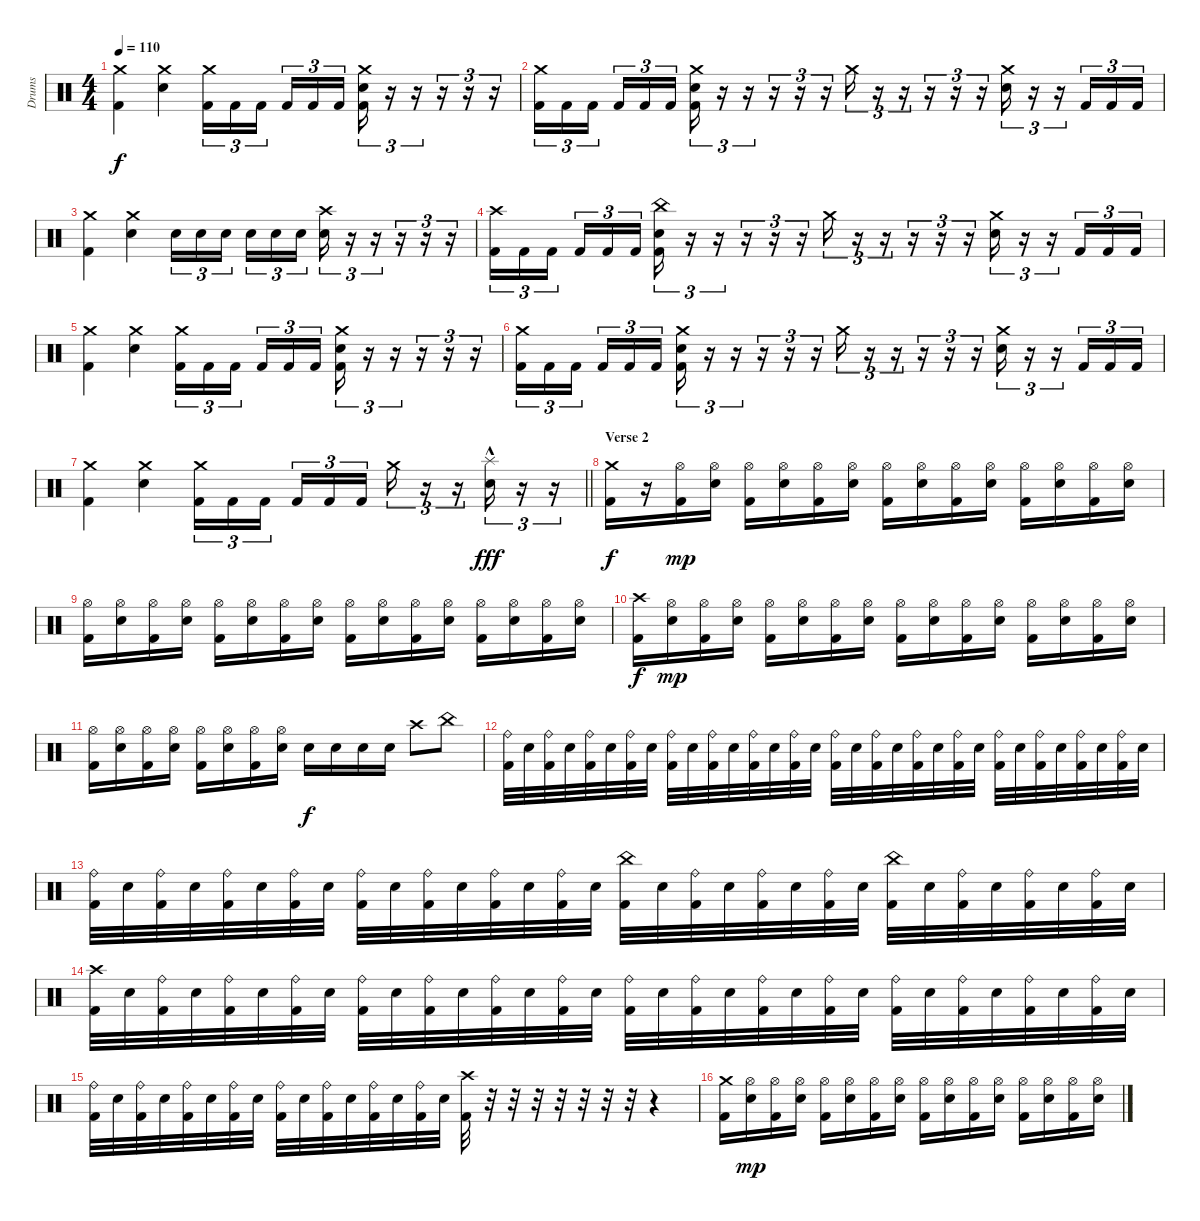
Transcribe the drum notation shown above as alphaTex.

\track ("Drums" "Drums") {instrument percussion}
\staff {score}
\articulation defaults
\ts (4 4)
\tempo 110
\clef neutral
\ks c
("Crash medium (hit)" "Kick (hit) 2").4{dy f} ("Crash medium (hit)" "Electric Snare (hit)").4 ("Crash medium (hit)" "Kick (hit) 2").16{tu (3 2)} "Kick (hit) 2".16{tu (3 2)} "Kick (hit) 2".16{tu (3 2) beam splitsecondary} "Kick (hit) 2".16{tu (3 2)} "Kick (hit) 2".16{tu (3 2)} "Kick (hit) 2".16{tu (3 2)} ("Crash medium (hit)" "Electric Snare (hit)" "Kick (hit) 2").16{tu (3 2)} r.16{tu (3 2)} r.16{tu (3 2)} r.16{tu (3 2)} r.16{tu (3 2)} r.16{tu (3 2)} |
("Crash medium (hit)" "Kick (hit) 2").16{tu (3 2)} "Kick (hit) 2".16{tu (3 2)} "Kick (hit) 2".16{tu (3 2) beam splitsecondary} "Kick (hit) 2".16{tu (3 2)} "Kick (hit) 2".16{tu (3 2)} "Kick (hit) 2".16{tu (3 2)} ("Crash medium (hit)" "Electric Snare (hit)" "Kick (hit) 2").16{tu (3 2)} r.16{tu (3 2)} r.16{tu (3 2)} r.16{tu (3 2)} r.16{tu (3 2)} r.16{tu (3 2)} "Crash medium (hit)".16{tu (3 2)} r.16{tu (3 2)} r.16{tu (3 2)} r.16{tu (3 2)} r.16{tu (3 2)} r.16{tu (3 2)} ("Crash medium (hit)" "Electric Snare (hit)").16{tu (3 2)} r.16{tu (3 2)} r.16{tu (3 2)} "Kick (hit) 2".16{tu (3 2)} "Kick (hit) 2".16{tu (3 2)} "Kick (hit) 2".16{tu (3 2)} |
("Crash medium (hit)" "Kick (hit) 2").4 ("Crash medium (hit)" "Electric Snare (hit)").4 "Electric Snare (hit)".16{tu (3 2)} "Electric Snare (hit)".16{tu (3 2)} "Electric Snare (hit)".16{tu (3 2) beam splitsecondary} "Electric Snare (hit)".16{tu (3 2)} "Electric Snare (hit)".16{tu (3 2)} "Electric Snare (hit)".16{tu (3 2)} ("Crash high (hit)" "Electric Snare (hit)").16{tu (3 2)} r.16{tu (3 2)} r.16{tu (3 2)} r.16{tu (3 2)} r.16{tu (3 2)} r.16{tu (3 2)} |
("Crash high (hit)" "Kick (hit) 2").16{tu (3 2)} "Kick (hit) 2".16{tu (3 2)} "Kick (hit) 2".16{tu (3 2) beam splitsecondary} "Kick (hit) 2".16{tu (3 2)} "Kick (hit) 2".16{tu (3 2)} "Kick (hit) 2".16{tu (3 2)} ("China (hit)" "Electric Snare (hit)" "Kick (hit) 2").16{tu (3 2)} r.16{tu (3 2)} r.16{tu (3 2)} r.16{tu (3 2)} r.16{tu (3 2)} r.16{tu (3 2)} "Crash medium (hit)".16{tu (3 2)} r.16{tu (3 2)} r.16{tu (3 2)} r.16{tu (3 2)} r.16{tu (3 2)} r.16{tu (3 2)} ("Crash medium (hit)" "Electric Snare (hit)").16{tu (3 2)} r.16{tu (3 2)} r.16{tu (3 2)} "Kick (hit) 2".16{tu (3 2)} "Kick (hit) 2".16{tu (3 2)} "Kick (hit) 2".16{tu (3 2)} |
("Crash medium (hit)" "Kick (hit) 2").4 ("Crash medium (hit)" "Electric Snare (hit)").4 ("Crash medium (hit)" "Kick (hit) 2").16{tu (3 2)} "Kick (hit) 2".16{tu (3 2)} "Kick (hit) 2".16{tu (3 2) beam splitsecondary} "Kick (hit) 2".16{tu (3 2)} "Kick (hit) 2".16{tu (3 2)} "Kick (hit) 2".16{tu (3 2)} ("Crash medium (hit)" "Electric Snare (hit)" "Kick (hit) 2").16{tu (3 2)} r.16{tu (3 2)} r.16{tu (3 2)} r.16{tu (3 2)} r.16{tu (3 2)} r.16{tu (3 2)} |
("Crash medium (hit)" "Kick (hit) 2").16{tu (3 2)} "Kick (hit) 2".16{tu (3 2)} "Kick (hit) 2".16{tu (3 2) beam splitsecondary} "Kick (hit) 2".16{tu (3 2)} "Kick (hit) 2".16{tu (3 2)} "Kick (hit) 2".16{tu (3 2)} ("Crash medium (hit)" "Electric Snare (hit)" "Kick (hit) 2").16{tu (3 2)} r.16{tu (3 2)} r.16{tu (3 2)} r.16{tu (3 2)} r.16{tu (3 2)} r.16{tu (3 2)} "Crash medium (hit)".16{tu (3 2)} r.16{tu (3 2)} r.16{tu (3 2)} r.16{tu (3 2)} r.16{tu (3 2)} r.16{tu (3 2)} ("Crash medium (hit)" "Electric Snare (hit)").16{tu (3 2)} r.16{tu (3 2)} r.16{tu (3 2)} "Kick (hit) 2".16{tu (3 2)} "Kick (hit) 2".16{tu (3 2)} "Kick (hit) 2".16{tu (3 2)} |
\barLineRight lightlight
("Crash medium (hit)" "Kick (hit) 2").4 ("Crash medium (hit)" "Electric Snare (hit)").4 ("Crash medium (hit)" "Kick (hit) 2").16{tu (3 2)} "Kick (hit) 2".16{tu (3 2)} "Kick (hit) 2".16{tu (3 2) beam splitsecondary} "Kick (hit) 2".16{tu (3 2)} "Kick (hit) 2".16{tu (3 2)} "Kick (hit) 2".16{tu (3 2)} "Crash medium (hit)".16{tu (3 2)} r.16{tu (3 2)} r.16{tu (3 2)} ("Splash (hit)"{hac} "Electric Snare (hit)").16{tu (3 2) dy fff} r.16{tu (3 2)} r.16{tu (3 2)} |
\section ("" "Verse 2")
("Crash medium (hit)" "Kick (hit) 2").16{dy f} r.16 ("Hi-Hat (open)" "Kick (hit) 2").16{dy mp} ("Hi-Hat (open)" "Electric Snare (hit)").16 ("Hi-Hat (open)" "Kick (hit) 2").16 ("Hi-Hat (open)" "Electric Snare (hit)").16 ("Hi-Hat (open)" "Kick (hit) 2").16 ("Hi-Hat (open)" "Electric Snare (hit)").16 ("Hi-Hat (open)" "Kick (hit) 2").16 ("Hi-Hat (open)" "Electric Snare (hit)").16 ("Hi-Hat (open)" "Kick (hit) 2").16 ("Hi-Hat (open)" "Electric Snare (hit)").16 ("Hi-Hat (open)" "Kick (hit) 2").16 ("Hi-Hat (open)" "Electric Snare (hit)").16 ("Hi-Hat (open)" "Kick (hit) 2").16 ("Hi-Hat (open)" "Electric Snare (hit)").16 |
("Hi-Hat (open)" "Kick (hit) 2").16 ("Hi-Hat (open)" "Electric Snare (hit)").16 ("Hi-Hat (open)" "Kick (hit) 2").16 ("Hi-Hat (open)" "Electric Snare (hit)").16 ("Hi-Hat (open)" "Kick (hit) 2").16 ("Hi-Hat (open)" "Electric Snare (hit)").16 ("Hi-Hat (open)" "Kick (hit) 2").16 ("Hi-Hat (open)" "Electric Snare (hit)").16 ("Hi-Hat (open)" "Kick (hit) 2").16 ("Hi-Hat (open)" "Electric Snare (hit)").16 ("Hi-Hat (open)" "Kick (hit) 2").16 ("Hi-Hat (open)" "Electric Snare (hit)").16 ("Hi-Hat (open)" "Kick (hit) 2").16 ("Hi-Hat (open)" "Electric Snare (hit)").16 ("Hi-Hat (open)" "Kick (hit) 2").16 ("Hi-Hat (open)" "Electric Snare (hit)").16 |
("Crash high (hit)" "Kick (hit) 2").16{dy f} ("Hi-Hat (open)" "Electric Snare (hit)").16{dy mp} ("Hi-Hat (open)" "Kick (hit) 2").16 ("Hi-Hat (open)" "Electric Snare (hit)").16 ("Hi-Hat (open)" "Kick (hit) 2").16 ("Hi-Hat (open)" "Electric Snare (hit)").16 ("Hi-Hat (open)" "Kick (hit) 2").16 ("Hi-Hat (open)" "Electric Snare (hit)").16 ("Hi-Hat (open)" "Kick (hit) 2").16 ("Hi-Hat (open)" "Electric Snare (hit)").16 ("Hi-Hat (open)" "Kick (hit) 2").16 ("Hi-Hat (open)" "Electric Snare (hit)").16 ("Hi-Hat (open)" "Kick (hit) 2").16 ("Hi-Hat (open)" "Electric Snare (hit)").16 ("Hi-Hat (open)" "Kick (hit) 2").16 ("Hi-Hat (open)" "Electric Snare (hit)").16 |
("Hi-Hat (open)" "Kick (hit) 2").16 ("Hi-Hat (open)" "Electric Snare (hit)").16 ("Hi-Hat (open)" "Kick (hit) 2").16 ("Hi-Hat (open)" "Electric Snare (hit)").16 ("Hi-Hat (open)" "Kick (hit) 2").16 ("Hi-Hat (open)" "Electric Snare (hit)").16 ("Hi-Hat (open)" "Kick (hit) 2").16 ("Hi-Hat (open)" "Electric Snare (hit)").16 "Electric Snare (hit)".16{dy f} "Electric Snare (hit)".16 "Electric Snare (hit)".16 "Electric Snare (hit)".16 "Crash high (hit)".8 "China (hit)".8 |
("Ride (bell)" "Kick (hit) 2").32 "Electric Snare (hit)".32 ("Ride (bell)" "Kick (hit) 2").32 "Electric Snare (hit)".32 ("Ride (bell)" "Kick (hit) 2").32 "Electric Snare (hit)".32 ("Ride (bell)" "Kick (hit) 2").32 "Electric Snare (hit)".32 ("Ride (bell)" "Kick (hit) 2").32 "Electric Snare (hit)".32 ("Ride (bell)" "Kick (hit) 2").32 "Electric Snare (hit)".32 ("Ride (bell)" "Kick (hit) 2").32 "Electric Snare (hit)".32 ("Ride (bell)" "Kick (hit) 2").32 "Electric Snare (hit)".32 ("Ride (bell)" "Kick (hit) 2").32 "Electric Snare (hit)".32 ("Ride (bell)" "Kick (hit) 2").32 "Electric Snare (hit)".32 ("Ride (bell)" "Kick (hit) 2").32 "Electric Snare (hit)".32 ("Ride (bell)" "Kick (hit) 2").32 "Electric Snare (hit)".32 ("Ride (bell)" "Kick (hit) 2").32 "Electric Snare (hit)".32 ("Ride (bell)" "Kick (hit) 2").32 "Electric Snare (hit)".32 ("Ride (bell)" "Kick (hit) 2").32 "Electric Snare (hit)".32 ("Ride (bell)" "Kick (hit) 2").32 "Electric Snare (hit)".32 |
("Ride (bell)" "Kick (hit) 2").32 "Electric Snare (hit)".32 ("Ride (bell)" "Kick (hit) 2").32 "Electric Snare (hit)".32 ("Ride (bell)" "Kick (hit) 2").32 "Electric Snare (hit)".32 ("Ride (bell)" "Kick (hit) 2").32 "Electric Snare (hit)".32 ("Ride (bell)" "Kick (hit) 2").32 "Electric Snare (hit)".32 ("Ride (bell)" "Kick (hit) 2").32 "Electric Snare (hit)".32 ("Ride (bell)" "Kick (hit) 2").32 "Electric Snare (hit)".32 ("Ride (bell)" "Kick (hit) 2").32 "Electric Snare (hit)".32 ("China (hit)" "Kick (hit) 2").32 "Electric Snare (hit)".32 ("Ride (bell)" "Kick (hit) 2").32 "Electric Snare (hit)".32 ("Ride (bell)" "Kick (hit) 2").32 "Electric Snare (hit)".32 ("Ride (bell)" "Kick (hit) 2").32 "Electric Snare (hit)".32 ("China (hit)" "Kick (hit) 2").32 "Electric Snare (hit)".32 ("Ride (bell)" "Kick (hit) 2").32 "Electric Snare (hit)".32 ("Ride (bell)" "Kick (hit) 2").32 "Electric Snare (hit)".32 ("Ride (bell)" "Kick (hit) 2").32 "Electric Snare (hit)".32 |
("Crash high (hit)" "Kick (hit) 2").32 "Electric Snare (hit)".32 ("Ride (bell)" "Kick (hit) 2").32 "Electric Snare (hit)".32 ("Ride (bell)" "Kick (hit) 2").32 "Electric Snare (hit)".32 ("Ride (bell)" "Kick (hit) 2").32 "Electric Snare (hit)".32 ("Ride (bell)" "Kick (hit) 2").32 "Electric Snare (hit)".32 ("Ride (bell)" "Kick (hit) 2").32 "Electric Snare (hit)".32 ("Ride (bell)" "Kick (hit) 2").32 "Electric Snare (hit)".32 ("Ride (bell)" "Kick (hit) 2").32 "Electric Snare (hit)".32 ("Ride (bell)" "Kick (hit) 2").32 "Electric Snare (hit)".32 ("Ride (bell)" "Kick (hit) 2").32 "Electric Snare (hit)".32 ("Ride (bell)" "Kick (hit) 2").32 "Electric Snare (hit)".32 ("Ride (bell)" "Kick (hit) 2").32 "Electric Snare (hit)".32 ("Ride (bell)" "Kick (hit) 2").32 "Electric Snare (hit)".32 ("Ride (bell)" "Kick (hit) 2").32 "Electric Snare (hit)".32 ("Ride (bell)" "Kick (hit) 2").32 "Electric Snare (hit)".32 ("Ride (bell)" "Kick (hit) 2").32 "Electric Snare (hit)".32 |
("Ride (bell)" "Kick (hit) 2").32 "Electric Snare (hit)".32 ("Ride (bell)" "Kick (hit) 2").32 "Electric Snare (hit)".32 ("Ride (bell)" "Kick (hit) 2").32 "Electric Snare (hit)".32 ("Ride (bell)" "Kick (hit) 2").32 "Electric Snare (hit)".32 ("Ride (bell)" "Kick (hit) 2").32 "Electric Snare (hit)".32 ("Ride (bell)" "Kick (hit) 2").32 "Electric Snare (hit)".32 ("Ride (bell)" "Kick (hit) 2").32 "Electric Snare (hit)".32 ("Ride (bell)" "Kick (hit) 2").32 "Electric Snare (hit)".32 ("Crash high (hit)" "Kick (hit) 2").32 r.32 r.32 r.32 r.32 r.32 r.32 r.32 r.4 |
("Crash medium (hit)" "Kick (hit) 2").16 ("Hi-Hat (open)" "Electric Snare (hit)").16{dy mp} ("Hi-Hat (open)" "Kick (hit) 2").16 ("Hi-Hat (open)" "Electric Snare (hit)").16 ("Hi-Hat (open)" "Kick (hit) 2").16 ("Hi-Hat (open)" "Electric Snare (hit)").16 ("Hi-Hat (open)" "Kick (hit) 2").16 ("Hi-Hat (open)" "Electric Snare (hit)").16 ("Hi-Hat (open)" "Kick (hit) 2").16 ("Hi-Hat (open)" "Electric Snare (hit)").16 ("Hi-Hat (open)" "Kick (hit) 2").16 ("Hi-Hat (open)" "Electric Snare (hit)").16 ("Hi-Hat (open)" "Kick (hit) 2").16 ("Hi-Hat (open)" "Electric Snare (hit)").16 ("Hi-Hat (open)" "Kick (hit) 2").16 ("Hi-Hat (open)" "Electric Snare (hit)").16
